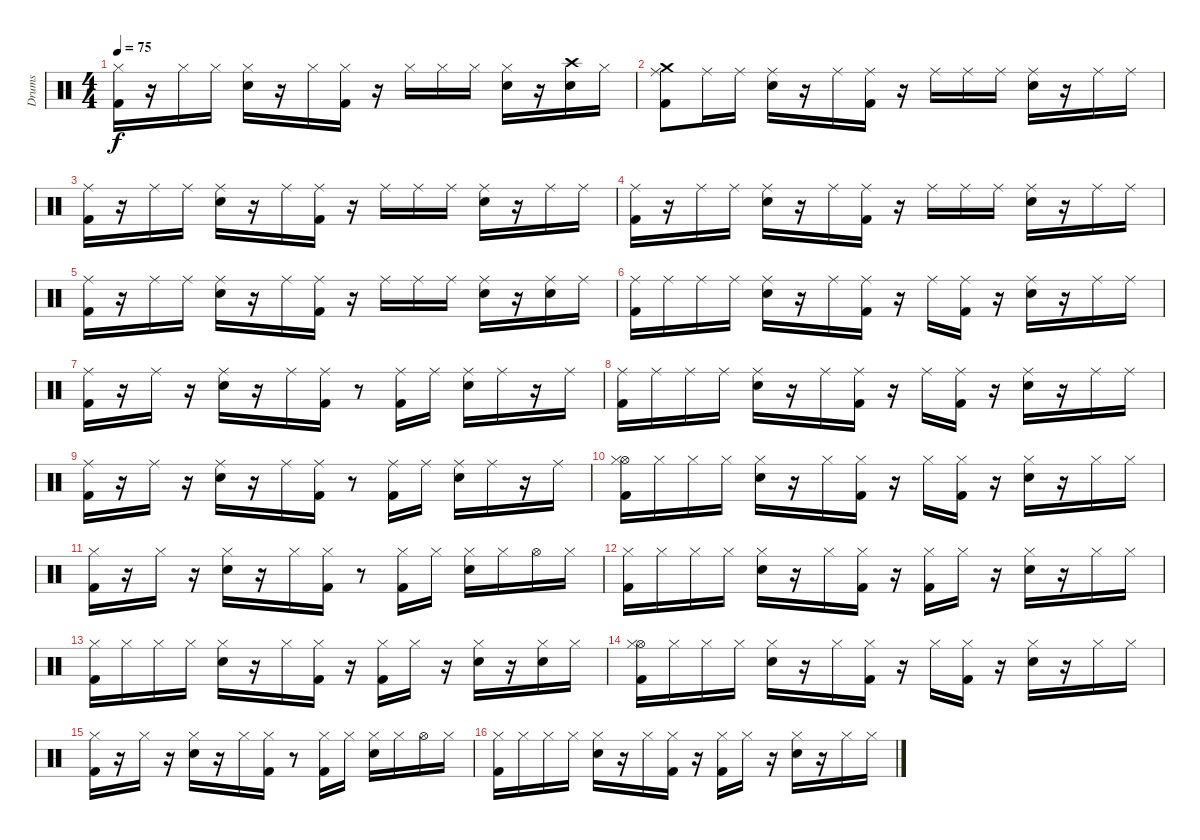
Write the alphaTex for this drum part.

\track ("Drums" "Drums") {instrument percussion}
\staff {score}
\articulation defaults
\ts (4 4)
\tempo 75
\clef neutral
\ks c
("Hi-Hat (closed)" "Kick (hit) 2").16{dy f} r.16 "Hi-Hat (closed)".16 "Hi-Hat (closed)".16 ("Hi-Hat (closed)" "Snare (hit) 2").16 r.16 "Hi-Hat (closed)".16 ("Kick (hit) 2" "Hi-Hat (closed)").16 r.16 "Hi-Hat (closed)".16 "Hi-Hat (closed)".16 "Hi-Hat (closed)".16 ("Hi-Hat (closed)" "Snare (hit) 2").16 r.16 ("Crash high (hit)" "Snare (hit) 2").16 "Hi-Hat (closed)".16 |
("Crash medium (hit)" "Ride (middle)" "Kick (hit) 2").8 "Ride (middle)".16 "Ride (middle)".16 ("Snare (hit) 2" "Ride (middle)").16 r.16 "Ride (middle)".16 ("Ride (middle)" "Kick (hit) 2").16 r.16 "Ride (middle)".16 "Ride (middle)".16 "Ride (middle)".16 ("Ride (middle)" "Snare (hit) 2").16 r.16 "Ride (middle)".16 "Ride (middle)".16 |
("Kick (hit) 2" "Ride (middle)").16 r.16 "Ride (middle)".16 "Ride (middle)".16 ("Snare (hit) 2" "Ride (middle)").16 r.16 "Ride (middle)".16 ("Ride (middle)" "Kick (hit) 2").16 r.16 "Ride (middle)".16 "Ride (middle)".16 "Ride (middle)".16 ("Ride (middle)" "Snare (hit) 2").16 r.16 "Ride (middle)".16 "Ride (middle)".16 |
("Ride (middle)" "Kick (hit) 2").16 r.16 "Ride (middle)".16 "Ride (middle)".16 ("Snare (hit) 2" "Ride (middle)").16 r.16 "Ride (middle)".16 ("Kick (hit) 2" "Ride (middle)").16 r.16 "Ride (middle)".16 "Ride (middle)".16 "Ride (middle)".16 ("Snare (hit) 2" "Ride (middle)").16 r.16 "Ride (middle)".16 "Ride (middle)".16 |
("Ride (middle)" "Kick (hit) 2").16 r.16 "Ride (middle)".16 "Ride (middle)".16 ("Snare (hit) 2" "Ride (middle)").16 r.16 "Ride (middle)".16 ("Kick (hit) 2" "Ride (middle)").16 r.16 "Ride (middle)".16 "Ride (middle)".16 "Ride (middle)".16 ("Snare (hit) 2" "Ride (middle)").16 r.16 ("Ride (middle)" "Snare (hit) 2").16 "Ride (middle)".16 |
("Kick (hit) 2" "Ride (middle)").16 "Ride (middle)".16 "Ride (middle)".16 "Ride (middle)".16 ("Snare (hit) 2" "Ride (middle)").16 r.16 "Ride (middle)".16 ("Ride (middle)" "Kick (hit) 2").16 r.16 "Ride (middle)".16 ("Ride (middle)" "Kick (hit) 2").16 r.16 ("Snare (hit) 2" "Ride (middle)").16 r.16 "Ride (middle)".16 "Ride (middle)".16 |
("Kick (hit) 2" "Ride (middle)").16 r.16 "Ride (middle)".16 r.16 ("Ride (middle)" "Snare (hit) 2").16 r.16 "Ride (middle)".16 ("Ride (middle)" "Kick (hit) 2").16 r.8 ("Ride (middle)" "Kick (hit) 2").16 "Ride (middle)".16 ("Snare (hit) 2" "Ride (middle)").16 "Ride (middle)".16 r.16 "Ride (middle)".16 |
("Kick (hit) 2" "Ride (middle)").16 "Ride (middle)".16 "Ride (middle)".16 "Ride (middle)".16 ("Snare (hit) 2" "Ride (middle)").16 r.16 "Ride (middle)".16 ("Ride (middle)" "Kick (hit) 2").16 r.16 "Ride (middle)".16 ("Ride (middle)" "Kick (hit) 2").16 r.16 ("Snare (hit) 2" "Ride (middle)").16 r.16 "Ride (middle)".16 "Ride (middle)".16 |
("Kick (hit) 2" "Ride (middle)").16 r.16 "Ride (middle)".16 r.16 ("Ride (middle)" "Snare (hit) 2").16 r.16 "Ride (middle)".16 ("Ride (middle)" "Kick (hit) 2").16 r.8 ("Ride (middle)" "Kick (hit) 2").16 "Ride (middle)".16 ("Snare (hit) 2" "Ride (middle)").16 "Ride (middle)".16 r.16 "Ride (middle)".16 |
("Kick (hit) 2" "Hi-Hat (open)" "Hi-Hat (closed)").16 "Hi-Hat (closed)".16 "Hi-Hat (closed)".16 "Hi-Hat (closed)".16 ("Hi-Hat (closed)" "Snare (hit) 2").16 r.16 "Hi-Hat (closed)".16 ("Kick (hit) 2" "Hi-Hat (closed)").16 r.16 "Hi-Hat (closed)".16 ("Kick (hit) 2" "Hi-Hat (closed)").16 r.16 ("Hi-Hat (closed)" "Snare (hit) 2").16 r.16 "Hi-Hat (closed)".16 "Hi-Hat (closed)".16 |
("Kick (hit) 2" "Hi-Hat (closed)").16 r.16 "Hi-Hat (closed)".16 r.16 ("Snare (hit) 2" "Hi-Hat (closed)").16 r.16 "Hi-Hat (closed)".16 ("Hi-Hat (closed)" "Kick (hit) 2").16 r.8 ("Hi-Hat (closed)" "Kick (hit) 2").16 "Hi-Hat (closed)".16 ("Snare (hit) 2" "Hi-Hat (closed)").16 "Hi-Hat (closed)".16 "Hi-Hat (open)".16 "Hi-Hat (closed)".16 |
("Hi-Hat (closed)" "Kick (hit) 2").16 "Hi-Hat (closed)".16 "Hi-Hat (closed)".16 "Hi-Hat (closed)".16 ("Snare (hit) 2" "Hi-Hat (closed)").16 r.16 "Hi-Hat (closed)".16 ("Hi-Hat (closed)" "Kick (hit) 2").16 r.16 ("Hi-Hat (closed)" "Kick (hit) 2").16 "Hi-Hat (closed)".16 r.16 ("Snare (hit) 2" "Hi-Hat (closed)").16 r.16 "Hi-Hat (closed)".16 "Hi-Hat (closed)".16 |
("Hi-Hat (closed)" "Kick (hit) 2").16 "Hi-Hat (closed)".16 "Hi-Hat (closed)".16 "Hi-Hat (closed)".16 ("Hi-Hat (closed)" "Snare (hit) 2").16 r.16 "Hi-Hat (closed)".16 ("Kick (hit) 2" "Hi-Hat (closed)").16 r.16 ("Hi-Hat (closed)" "Kick (hit) 2").16 "Hi-Hat (closed)".16 r.16 ("Snare (hit) 2" "Hi-Hat (closed)").16 r.16 ("Snare (hit) 2" "Hi-Hat (closed)").16 "Hi-Hat (closed)".16 |
("Kick (hit) 2" "Hi-Hat (open)" "Hi-Hat (closed)").16 "Hi-Hat (closed)".16 "Hi-Hat (closed)".16 "Hi-Hat (closed)".16 ("Hi-Hat (closed)" "Snare (hit) 2").16 r.16 "Hi-Hat (closed)".16 ("Kick (hit) 2" "Hi-Hat (closed)").16 r.16 "Hi-Hat (closed)".16 ("Kick (hit) 2" "Hi-Hat (closed)").16 r.16 ("Hi-Hat (closed)" "Snare (hit) 2").16 r.16 "Hi-Hat (closed)".16 "Hi-Hat (closed)".16 |
("Kick (hit) 2" "Hi-Hat (closed)").16 r.16 "Hi-Hat (closed)".16 r.16 ("Snare (hit) 2" "Hi-Hat (closed)").16 r.16 "Hi-Hat (closed)".16 ("Hi-Hat (closed)" "Kick (hit) 2").16 r.8 ("Hi-Hat (closed)" "Kick (hit) 2").16 "Hi-Hat (closed)".16 ("Snare (hit) 2" "Hi-Hat (closed)").16 "Hi-Hat (closed)".16 "Hi-Hat (open)".16 "Hi-Hat (closed)".16 |
("Hi-Hat (closed)" "Kick (hit) 2").16 "Hi-Hat (closed)".16 "Hi-Hat (closed)".16 "Hi-Hat (closed)".16 ("Snare (hit) 2" "Hi-Hat (closed)").16 r.16 "Hi-Hat (closed)".16 ("Hi-Hat (closed)" "Kick (hit) 2").16 r.16 ("Hi-Hat (closed)" "Kick (hit) 2").16 "Hi-Hat (closed)".16 r.16 ("Snare (hit) 2" "Hi-Hat (closed)").16 r.16 "Hi-Hat (closed)".16 "Hi-Hat (closed)".16
